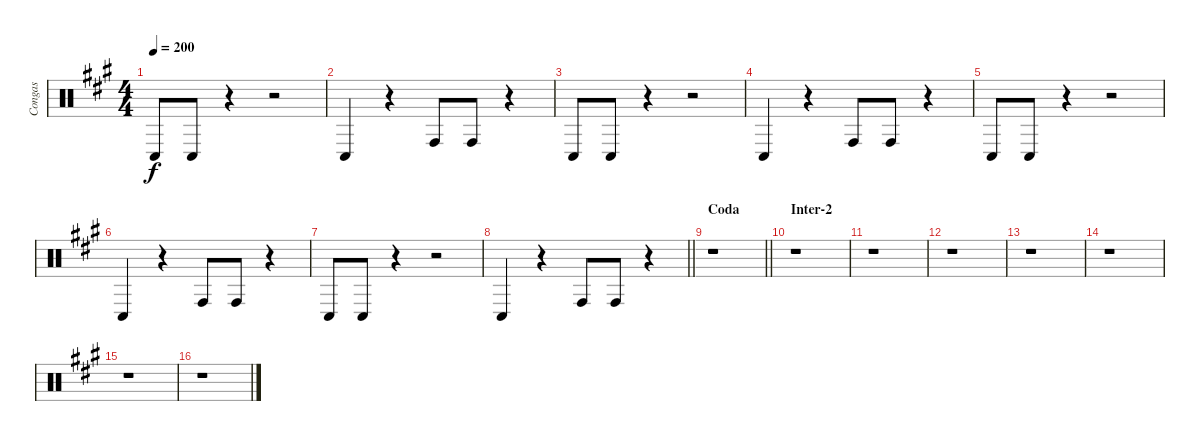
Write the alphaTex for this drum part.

\track ("Congas" "Congas") {instrument percussion}
\staff {score}
\articulation defaults
\ts (4 4)
\tempo 200
\clef neutral
\ks a "Conga low (hit)".8{dy f} "Conga low (hit)".8
r.4 r.2 |
"Conga low (hit)".4 r.4 "Conga high (hit)".8 "Conga high (hit)".8 r.4 |
"Conga low (hit)".8 "Conga low (hit)".8 r.4 r.2 |
"Conga low (hit)".4 r.4 "Conga high (hit)".8 "Conga high (hit)".8 r.4 |
"Conga low (hit)".8 "Conga low (hit)".8 r.4 r.2 |
"Conga low (hit)".4 r.4 "Conga high (hit)".8 "Conga high (hit)".8 r.4 |
"Conga low (hit)".8 "Conga low (hit)".8 r.4 r.2 |
\barLineRight lightlight "Conga low (hit)".4
r.4 "Conga high (hit)".8 "Conga high (hit)".8 r.4 |
\section ("" "Coda")
\barLineRight lightlight
r.1 |
\section ("" "Inter-2")
r.1 |
r.1 |
r.1 |
r.1 |
r.1 |
r.1 |
r.1
